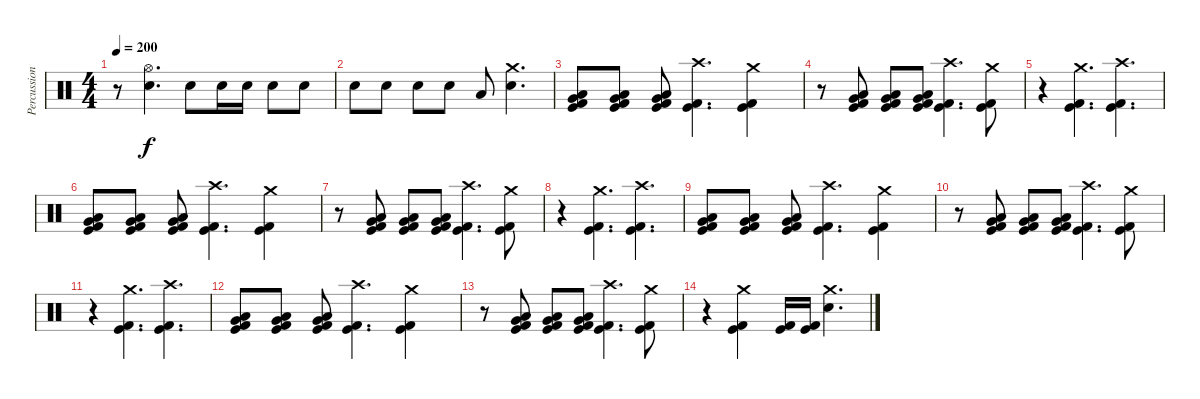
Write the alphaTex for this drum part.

\track ("Percussions" "Percussion") {instrument percussion}
\staff {score}
\articulation defaults
\ts (4 4)
\tempo 200
\clef neutral
\ks c
r.8{dy f} ("Hi-Hat (open)" "Electric Snare (hit)").4{d} "Electric Snare (hit)".8 "Electric Snare (hit)".16 "Electric Snare (hit)".16 "Electric Snare (hit)".8 "Electric Snare (hit)".8 |
"Electric Snare (hit)".8 "Electric Snare (hit)".8 "Electric Snare (hit)".8 "Electric Snare (hit)".8 "Low Floor Tom (hit)".8 ("Crash medium (hit)" "Electric Snare (hit)").4{d} |
("Very Low Tom (hit)" "Low Floor Tom (hit)" "Kick (hit)" "Kick (hit) 2").8 ("Very Low Tom (hit)" "Low Floor Tom (hit)" "Kick (hit)" "Kick (hit) 2").8 ("Very Low Tom (hit)" "Low Floor Tom (hit)" "Kick (hit)" "Kick (hit) 2").8 ("Crash high (hit)" "Kick (hit)" "Kick (hit) 2").4{d} ("Crash medium (hit)" "Kick (hit)" "Kick (hit) 2").4 |
r.8 ("Very Low Tom (hit)" "Low Floor Tom (hit)" "Kick (hit)" "Kick (hit) 2").8 ("Very Low Tom (hit)" "Low Floor Tom (hit)" "Kick (hit)" "Kick (hit) 2").8 ("Very Low Tom (hit)" "Low Floor Tom (hit)" "Kick (hit)" "Kick (hit) 2").8 ("Crash high (hit)" "Kick (hit)" "Kick (hit) 2").4{d} ("Crash medium (hit)" "Kick (hit)" "Kick (hit) 2").8 |
r.4 ("Crash medium (hit)" "Kick (hit)" "Kick (hit) 2").4{d} ("Crash high (hit)" "Kick (hit)" "Kick (hit) 2").4{d} |
("Very Low Tom (hit)" "Low Floor Tom (hit)" "Kick (hit)" "Kick (hit) 2").8 ("Very Low Tom (hit)" "Low Floor Tom (hit)" "Kick (hit)" "Kick (hit) 2").8 ("Very Low Tom (hit)" "Low Floor Tom (hit)" "Kick (hit)" "Kick (hit) 2").8 ("Crash high (hit)" "Kick (hit)" "Kick (hit) 2").4{d} ("Crash medium (hit)" "Kick (hit)" "Kick (hit) 2").4 |
r.8 ("Very Low Tom (hit)" "Low Floor Tom (hit)" "Kick (hit)" "Kick (hit) 2").8 ("Very Low Tom (hit)" "Low Floor Tom (hit)" "Kick (hit)" "Kick (hit) 2").8 ("Very Low Tom (hit)" "Low Floor Tom (hit)" "Kick (hit)" "Kick (hit) 2").8 ("Crash high (hit)" "Kick (hit)" "Kick (hit) 2").4{d} ("Crash medium (hit)" "Kick (hit)" "Kick (hit) 2").8 |
r.4 ("Crash medium (hit)" "Kick (hit)" "Kick (hit) 2").4{d} ("Crash high (hit)" "Kick (hit)" "Kick (hit) 2").4{d} |
("Very Low Tom (hit)" "Low Floor Tom (hit)" "Kick (hit)" "Kick (hit) 2").8 ("Very Low Tom (hit)" "Low Floor Tom (hit)" "Kick (hit)" "Kick (hit) 2").8 ("Very Low Tom (hit)" "Low Floor Tom (hit)" "Kick (hit)" "Kick (hit) 2").8 ("Crash high (hit)" "Kick (hit)" "Kick (hit) 2").4{d} ("Crash medium (hit)" "Kick (hit)" "Kick (hit) 2").4 |
r.8 ("Very Low Tom (hit)" "Low Floor Tom (hit)" "Kick (hit)" "Kick (hit) 2").8 ("Very Low Tom (hit)" "Low Floor Tom (hit)" "Kick (hit)" "Kick (hit) 2").8 ("Very Low Tom (hit)" "Low Floor Tom (hit)" "Kick (hit)" "Kick (hit) 2").8 ("Crash high (hit)" "Kick (hit)" "Kick (hit) 2").4{d} ("Crash medium (hit)" "Kick (hit)" "Kick (hit) 2").8 |
r.4 ("Crash medium (hit)" "Kick (hit)" "Kick (hit) 2").4{d} ("Crash high (hit)" "Kick (hit)" "Kick (hit) 2").4{d} |
("Very Low Tom (hit)" "Low Floor Tom (hit)" "Kick (hit)" "Kick (hit) 2").8 ("Very Low Tom (hit)" "Low Floor Tom (hit)" "Kick (hit)" "Kick (hit) 2").8 ("Very Low Tom (hit)" "Low Floor Tom (hit)" "Kick (hit)" "Kick (hit) 2").8 ("Crash high (hit)" "Kick (hit)" "Kick (hit) 2").4{d} ("Crash medium (hit)" "Kick (hit)" "Kick (hit) 2").4 |
r.8 ("Very Low Tom (hit)" "Low Floor Tom (hit)" "Kick (hit)" "Kick (hit) 2").8 ("Very Low Tom (hit)" "Low Floor Tom (hit)" "Kick (hit)" "Kick (hit) 2").8 ("Very Low Tom (hit)" "Low Floor Tom (hit)" "Kick (hit)" "Kick (hit) 2").8 ("Crash high (hit)" "Kick (hit)" "Kick (hit) 2").4{d} ("Crash medium (hit)" "Kick (hit)" "Kick (hit) 2").8 |
r.4 ("Crash medium (hit)" "Kick (hit)" "Kick (hit) 2").4 ("Kick (hit)" "Kick (hit) 2").16 ("Kick (hit)" "Kick (hit) 2").16 ("Crash medium (hit)" "Electric Snare (hit)").4{d}
